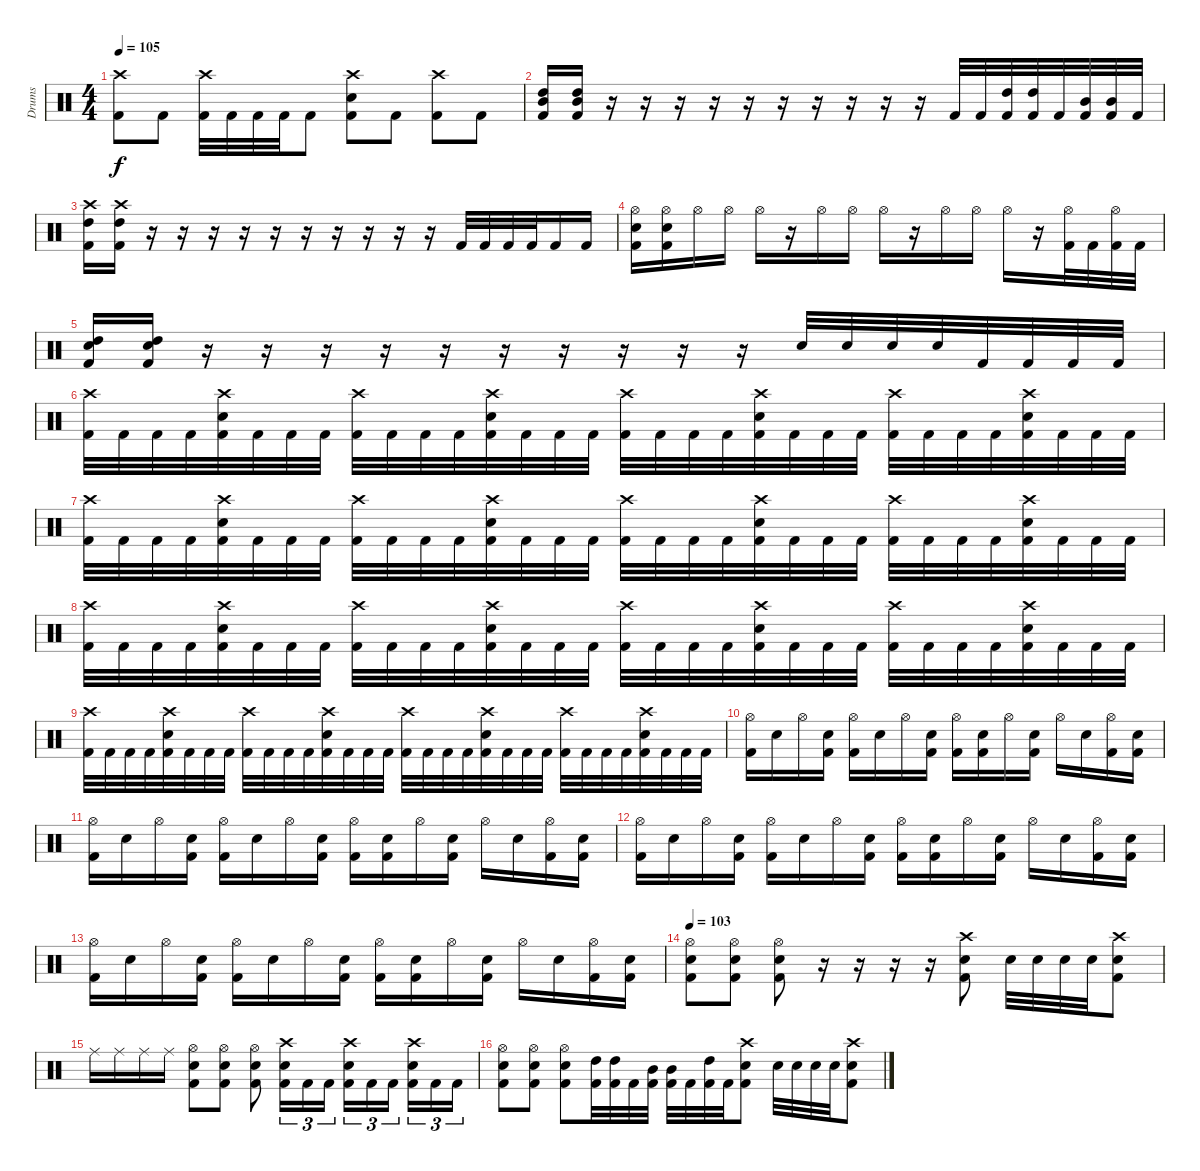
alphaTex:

\track ("Drums" "Drums") {instrument percussion}
\staff {score}
\articulation defaults
\ts (4 4)
\tempo 105
\clef neutral
\ks c
("Crash high (hit)" "Kick (hit) 2").8{dy f} "Kick (hit) 2".8 ("Crash high (hit)" "Kick (hit) 2").32 "Kick (hit) 2".32 "Kick (hit) 2".32 "Kick (hit) 2".32 "Kick (hit) 2".8 ("Crash high (hit)" "Electric Snare (hit)" "Kick (hit) 2").8 "Kick (hit) 2".8 ("Crash high (hit)" "Kick (hit) 2").8 "Kick (hit) 2".8 |
("Mid Tom (hit)" "High Tom (hit)" "Kick (hit) 2").16 ("Mid Tom (hit)" "High Tom (hit)" "Kick (hit) 2").16 r.16 r.16 r.16 r.16 r.16 r.16 r.16 r.16 r.16 r.16 "Kick (hit) 2".32 "Kick (hit) 2".32 ("High Tom (hit)" "Kick (hit) 2").32 ("High Tom (hit)" "Kick (hit) 2").32 "Kick (hit) 2".32 ("Mid Tom (hit)" "Kick (hit) 2").32 ("Mid Tom (hit)" "Kick (hit) 2").32 "Kick (hit) 2".32 |
("Crash high (hit)" "High Tom (hit)" "Kick (hit) 2").16 ("Crash high (hit)" "High Tom (hit)" "Kick (hit) 2").16 r.16 r.16 r.16 r.16 r.16 r.16 r.16 r.16 r.16 r.16 "Kick (hit) 2".32 "Kick (hit) 2".32 "Kick (hit) 2".32 "Kick (hit) 2".32 "Kick (hit) 2".16 "Kick (hit) 2".16 |
("Hi-Hat (open)" "Electric Snare (hit)" "Kick (hit) 2").16 ("Hi-Hat (open)" "Electric Snare (hit)" "Kick (hit) 2").16 "Hi-Hat (open)".16 "Hi-Hat (open)".16 "Hi-Hat (open)".16 r.16 "Hi-Hat (open)".16 "Hi-Hat (open)".16 "Hi-Hat (open)".16 r.16 "Hi-Hat (open)".16 "Hi-Hat (open)".16 "Hi-Hat (open)".16 r.16 ("Hi-Hat (open)" "Kick (hit) 2").32 "Kick (hit) 2".32 ("Hi-Hat (open)" "Kick (hit) 2").32 "Kick (hit) 2".32 |
("High Tom (hit)" "Electric Snare (hit)" "Kick (hit) 2").16 ("High Tom (hit)" "Electric Snare (hit)" "Kick (hit) 2").16 r.16 r.16 r.16 r.16 r.16 r.16 r.16 r.16 r.16 r.16 "Electric Snare (hit)".32 "Electric Snare (hit)".32 "Electric Snare (hit)".32 "Electric Snare (hit)".32 "Kick (hit) 2".32 "Kick (hit) 2".32 "Kick (hit) 2".32 "Kick (hit) 2".32 |
("Crash high (hit)" "Kick (hit) 2").32 "Kick (hit) 2".32 "Kick (hit) 2".32 "Kick (hit) 2".32 ("Crash high (hit)" "Electric Snare (hit)" "Kick (hit) 2").32 "Kick (hit) 2".32 "Kick (hit) 2".32 "Kick (hit) 2".32 ("Crash high (hit)" "Kick (hit) 2").32 "Kick (hit) 2".32 "Kick (hit) 2".32 "Kick (hit) 2".32 ("Crash high (hit)" "Electric Snare (hit)" "Kick (hit) 2").32 "Kick (hit) 2".32 "Kick (hit) 2".32 "Kick (hit) 2".32 ("Crash high (hit)" "Kick (hit) 2").32 "Kick (hit) 2".32 "Kick (hit) 2".32 "Kick (hit) 2".32 ("Crash high (hit)" "Electric Snare (hit)" "Kick (hit) 2").32 "Kick (hit) 2".32 "Kick (hit) 2".32 "Kick (hit) 2".32 ("Crash high (hit)" "Kick (hit) 2").32 "Kick (hit) 2".32 "Kick (hit) 2".32 "Kick (hit) 2".32 ("Crash high (hit)" "Electric Snare (hit)" "Kick (hit) 2").32 "Kick (hit) 2".32 "Kick (hit) 2".32 "Kick (hit) 2".32 |
("Crash high (hit)" "Kick (hit) 2").32 "Kick (hit) 2".32 "Kick (hit) 2".32 "Kick (hit) 2".32 ("Crash high (hit)" "Electric Snare (hit)" "Kick (hit) 2").32 "Kick (hit) 2".32 "Kick (hit) 2".32 "Kick (hit) 2".32 ("Crash high (hit)" "Kick (hit) 2").32 "Kick (hit) 2".32 "Kick (hit) 2".32 "Kick (hit) 2".32 ("Crash high (hit)" "Electric Snare (hit)" "Kick (hit) 2").32 "Kick (hit) 2".32 "Kick (hit) 2".32 "Kick (hit) 2".32 ("Crash high (hit)" "Kick (hit) 2").32 "Kick (hit) 2".32 "Kick (hit) 2".32 "Kick (hit) 2".32 ("Crash high (hit)" "Electric Snare (hit)" "Kick (hit) 2").32 "Kick (hit) 2".32 "Kick (hit) 2".32 "Kick (hit) 2".32 ("Crash high (hit)" "Kick (hit) 2").32 "Kick (hit) 2".32 "Kick (hit) 2".32 "Kick (hit) 2".32 ("Crash high (hit)" "Electric Snare (hit)" "Kick (hit) 2").32 "Kick (hit) 2".32 "Kick (hit) 2".32 "Kick (hit) 2".32 |
("Crash high (hit)" "Kick (hit) 2").32 "Kick (hit) 2".32 "Kick (hit) 2".32 "Kick (hit) 2".32 ("Crash high (hit)" "Electric Snare (hit)" "Kick (hit) 2").32 "Kick (hit) 2".32 "Kick (hit) 2".32 "Kick (hit) 2".32 ("Crash high (hit)" "Kick (hit) 2").32 "Kick (hit) 2".32 "Kick (hit) 2".32 "Kick (hit) 2".32 ("Crash high (hit)" "Electric Snare (hit)" "Kick (hit) 2").32 "Kick (hit) 2".32 "Kick (hit) 2".32 "Kick (hit) 2".32 ("Crash high (hit)" "Kick (hit) 2").32 "Kick (hit) 2".32 "Kick (hit) 2".32 "Kick (hit) 2".32 ("Crash high (hit)" "Electric Snare (hit)" "Kick (hit) 2").32 "Kick (hit) 2".32 "Kick (hit) 2".32 "Kick (hit) 2".32 ("Crash high (hit)" "Kick (hit) 2").32 "Kick (hit) 2".32 "Kick (hit) 2".32 "Kick (hit) 2".32 ("Crash high (hit)" "Electric Snare (hit)" "Kick (hit) 2").32 "Kick (hit) 2".32 "Kick (hit) 2".32 "Kick (hit) 2".32 |
("Crash high (hit)" "Kick (hit) 2").32 "Kick (hit) 2".32 "Kick (hit) 2".32 "Kick (hit) 2".32 ("Crash high (hit)" "Electric Snare (hit)" "Kick (hit) 2").32 "Kick (hit) 2".32 "Kick (hit) 2".32 "Kick (hit) 2".32 ("Crash high (hit)" "Kick (hit) 2").32 "Kick (hit) 2".32 "Kick (hit) 2".32 "Kick (hit) 2".32 ("Crash high (hit)" "Electric Snare (hit)" "Kick (hit) 2").32 "Kick (hit) 2".32 "Kick (hit) 2".32 "Kick (hit) 2".32 ("Crash high (hit)" "Kick (hit) 2").32 "Kick (hit) 2".32 "Kick (hit) 2".32 "Kick (hit) 2".32 ("Crash high (hit)" "Electric Snare (hit)" "Kick (hit) 2").32 "Kick (hit) 2".32 "Kick (hit) 2".32 "Kick (hit) 2".32 ("Crash high (hit)" "Kick (hit) 2").32 "Kick (hit) 2".32 "Kick (hit) 2".32 "Kick (hit) 2".32 ("Crash high (hit)" "Electric Snare (hit)" "Kick (hit) 2").32 "Kick (hit) 2".32 "Kick (hit) 2".32 "Kick (hit) 2".32 |
("Hi-Hat (open)" "Kick (hit) 2").16 "Electric Snare (hit)".16 "Hi-Hat (open)".16 ("Electric Snare (hit)" "Kick (hit) 2").16 ("Hi-Hat (open)" "Kick (hit) 2").16 "Electric Snare (hit)".16 "Hi-Hat (open)".16 ("Electric Snare (hit)" "Kick (hit) 2").16 ("Hi-Hat (open)" "Kick (hit) 2").16 ("Electric Snare (hit)" "Kick (hit) 2").16 "Hi-Hat (open)".16 ("Electric Snare (hit)" "Kick (hit) 2").16 "Hi-Hat (open)".16 "Electric Snare (hit)".16 ("Hi-Hat (open)" "Kick (hit) 2").16 ("Electric Snare (hit)" "Kick (hit) 2").16 |
("Hi-Hat (open)" "Kick (hit) 2").16 "Electric Snare (hit)".16 "Hi-Hat (open)".16 ("Electric Snare (hit)" "Kick (hit) 2").16 ("Hi-Hat (open)" "Kick (hit) 2").16 "Electric Snare (hit)".16 "Hi-Hat (open)".16 ("Electric Snare (hit)" "Kick (hit) 2").16 ("Hi-Hat (open)" "Kick (hit) 2").16 ("Electric Snare (hit)" "Kick (hit) 2").16 "Hi-Hat (open)".16 ("Electric Snare (hit)" "Kick (hit) 2").16 "Hi-Hat (open)".16 "Electric Snare (hit)".16 ("Hi-Hat (open)" "Kick (hit) 2").16 ("Electric Snare (hit)" "Kick (hit) 2").16 |
("Hi-Hat (open)" "Kick (hit) 2").16 "Electric Snare (hit)".16 "Hi-Hat (open)".16 ("Electric Snare (hit)" "Kick (hit) 2").16 ("Hi-Hat (open)" "Kick (hit) 2").16 "Electric Snare (hit)".16 "Hi-Hat (open)".16 ("Electric Snare (hit)" "Kick (hit) 2").16 ("Hi-Hat (open)" "Kick (hit) 2").16 ("Electric Snare (hit)" "Kick (hit) 2").16 "Hi-Hat (open)".16 ("Electric Snare (hit)" "Kick (hit) 2").16 "Hi-Hat (open)".16 "Electric Snare (hit)".16 ("Hi-Hat (open)" "Kick (hit) 2").16 ("Electric Snare (hit)" "Kick (hit) 2").16 |
("Hi-Hat (open)" "Kick (hit) 2").16 "Electric Snare (hit)".16 "Hi-Hat (open)".16 ("Electric Snare (hit)" "Kick (hit) 2").16 ("Hi-Hat (open)" "Kick (hit) 2").16 "Electric Snare (hit)".16 "Hi-Hat (open)".16 ("Electric Snare (hit)" "Kick (hit) 2").16 ("Hi-Hat (open)" "Kick (hit) 2").16 ("Electric Snare (hit)" "Kick (hit) 2").16 "Hi-Hat (open)".16 ("Electric Snare (hit)" "Kick (hit) 2").16 "Hi-Hat (open)".16 "Electric Snare (hit)".16 ("Hi-Hat (open)" "Kick (hit) 2").16 ("Electric Snare (hit)" "Kick (hit) 2").16 |
\tempo 103
("Hi-Hat (open)" "Electric Snare (hit)" "Kick (hit) 2").8 ("Hi-Hat (open)" "Electric Snare (hit)" "Kick (hit) 2").8 ("Hi-Hat (open)" "Electric Snare (hit)" "Kick (hit) 2").8 r.16 r.16 r.16 r.16 ("Crash high (hit)" "Electric Snare (hit)" "Kick (hit) 2").8 "Electric Snare (hit)".32 "Electric Snare (hit)".32 "Electric Snare (hit)".32 "Electric Snare (hit)".32 ("Crash high (hit)" "Electric Snare (hit)" "Kick (hit) 2").8 |
"Ride (middle)".16 "Ride (middle)".16 "Ride (middle)".16 "Ride (middle)".16 ("Hi-Hat (open)" "Electric Snare (hit)" "Kick (hit) 2").8 ("Hi-Hat (open)" "Electric Snare (hit)" "Kick (hit) 2").8 ("Hi-Hat (open)" "Electric Snare (hit)" "Kick (hit) 2").8 ("Crash high (hit)" "Electric Snare (hit)" "Kick (hit) 2").16{tu (3 2)} "Kick (hit) 2".16{tu (3 2)} "Kick (hit) 2".16{tu (3 2)} ("Crash high (hit)" "Electric Snare (hit)" "Kick (hit) 2").16{tu (3 2)} "Kick (hit) 2".16{tu (3 2)} "Kick (hit) 2".16{tu (3 2) beam splitsecondary} ("Crash high (hit)" "Electric Snare (hit)" "Kick (hit) 2").16{tu (3 2)} "Kick (hit) 2".16{tu (3 2)} "Kick (hit) 2".16{tu (3 2)} |
("Hi-Hat (open)" "Electric Snare (hit)" "Kick (hit) 2").8 ("Hi-Hat (open)" "Electric Snare (hit)" "Kick (hit) 2").8 ("Hi-Hat (open)" "Electric Snare (hit)" "Kick (hit) 2").8 ("High Tom (hit)" "Kick (hit) 2").32 ("High Tom (hit)" "Kick (hit) 2").32 "Kick (hit) 2".32 ("Mid Tom (hit)" "Kick (hit) 2").32 ("Mid Tom (hit)" "Kick (hit) 2").32 "Kick (hit) 2".32 ("High Tom (hit)" "Kick (hit) 2").32 "Kick (hit) 2".32 ("Crash high (hit)" "Electric Snare (hit)" "Kick (hit) 2").8 "Electric Snare (hit)".32 "Electric Snare (hit)".32 "Electric Snare (hit)".32 "Electric Snare (hit)".32 ("Crash high (hit)" "Electric Snare (hit)" "Kick (hit) 2").8
